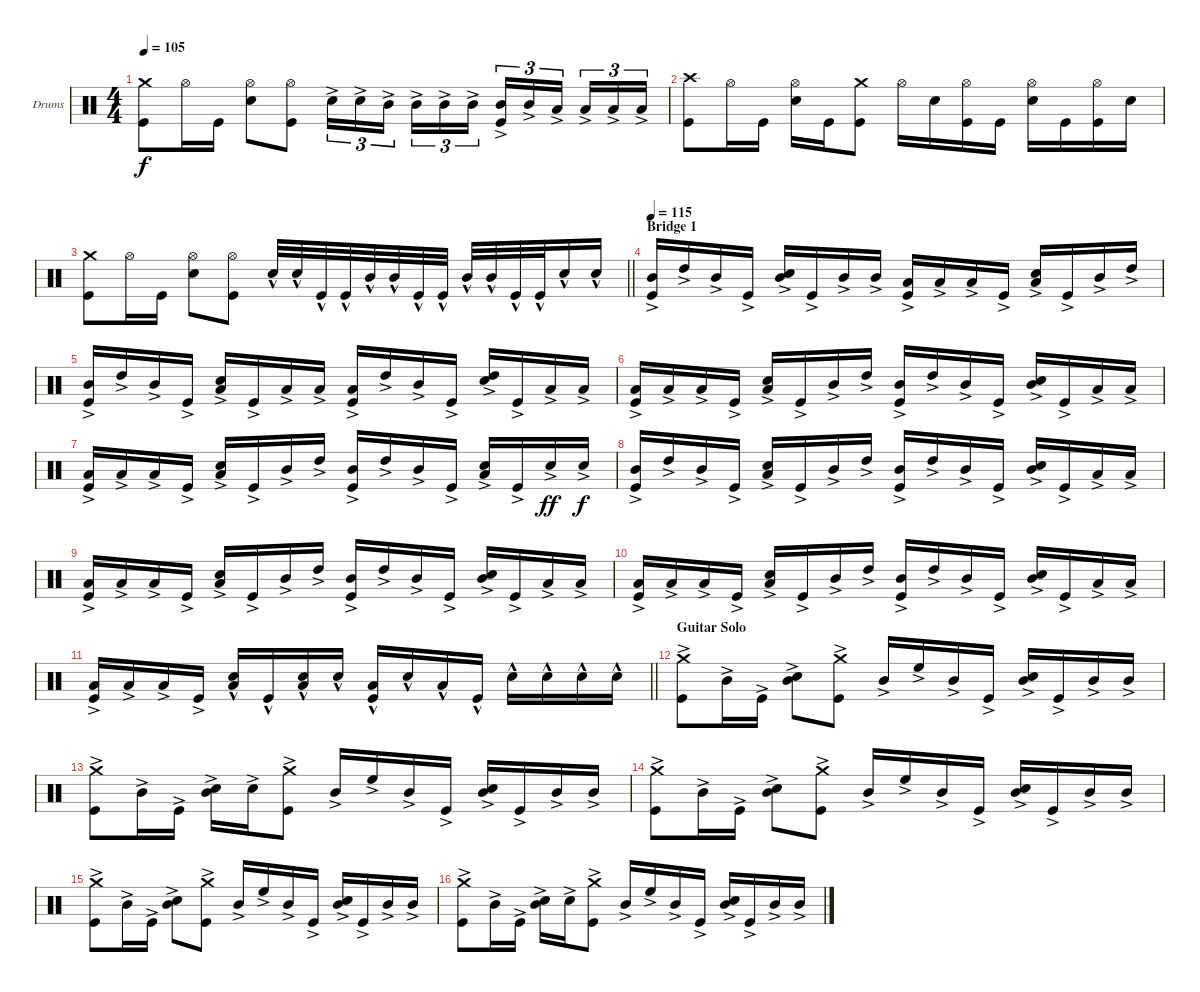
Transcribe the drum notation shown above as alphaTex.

\bracketExtendMode groupsimilarinstruments
\firstSystemTrackNameOrientation horizontal
\otherSystemsTrackNameOrientation horizontal
\track ("Drumkit" "Drums") {instrument percussion}
\staff {score}
\articulation defaults
\ts (4 4)
\tempo 105
\clef neutral
\ks c
("Crash medium (hit)" "Kick (hit)").8{dy f} "Hi-Hat (open)".16 "Kick (hit)".16 ("Hi-Hat (open)" "Snare (hit) 2").8 ("Hi-Hat (open)" "Kick (hit)").8 "Snare (hit) 2"{ac}.16{tu (3 2)} "Snare (hit) 2"{ac}.16{tu (3 2)} "Mid Tom (hit)"{ac}.16{tu (3 2)} "Mid Tom (hit)"{ac}.16{tu (3 2)} "Mid Tom (hit)"{ac}.16{tu (3 2)} "Mid Tom (hit)"{ac}.16{tu (3 2)} ("Mid Tom (hit)"{ac} "Kick (hit)").16{tu (3 2)} "Mid Tom (hit)"{ac}.16{tu (3 2)} "Low Tom (hit)"{ac}.16{tu (3 2)} "Low Tom (hit)"{ac}.16{tu (3 2)} "Low Tom (hit)"{ac}.16{tu (3 2)} "Low Tom (hit)"{ac}.16{tu (3 2)} |
("Crash high (hit)" "Kick (hit)").8 "Hi-Hat (open)".16 "Kick (hit)".16 ("Hi-Hat (open)" "Snare (hit) 2").16 "Kick (hit)".16 ("Crash medium (hit)" "Kick (hit)").8 "Hi-Hat (open)".16 "Snare (hit) 2".16 ("Hi-Hat (open)" "Kick (hit)").16 "Kick (hit)".16 ("Hi-Hat (open)" "Snare (hit) 2").16 "Kick (hit)".16 ("Hi-Hat (open)" "Kick (hit)").16 "Snare (hit) 2".16 |
\tempo (115 1 hide)
\barLineRight lightlight
("Crash medium (hit)" "Kick (hit)").8 "Hi-Hat (open)".16 "Kick (hit)".16 ("Hi-Hat (open)" "Snare (hit) 2").8 ("Hi-Hat (open)" "Kick (hit)").8 "Snare (hit) 2"{hac}.32 "Snare (hit) 2"{hac}.32 "Kick (hit)"{hac}.32 "Kick (hit)"{hac}.32 "Mid Tom (hit)"{hac}.32 "Mid Tom (hit)"{hac}.32 "Kick (hit)"{hac}.32 "Kick (hit)"{hac}.32 "Mid Tom (hit)"{hac}.32 "Mid Tom (hit)"{hac}.32 "Kick (hit)"{hac}.32 "Kick (hit)"{hac}.32 "Snare (hit) 2"{hac}.16 "Snare (hit) 2"{hac}.16 |
\section ("" "Bridge 1")
\tempo 115
("Mid Tom (hit)"{ac} "Kick (hit)"{ac}).16 "High Tom (hit)"{ac}.16 "Mid Tom (hit)"{ac}.16 "Kick (hit)"{ac}.16 ("Mid Tom (hit)"{ac} "Snare (hit) 2"{ac}).16 "Kick (hit)"{ac}.16 "Mid Tom (hit)"{ac}.16 "Mid Tom (hit)"{ac}.16 ("Low Tom (hit)"{ac} "Kick (hit)"{ac}).16 "Low Tom (hit)"{ac}.16 "Low Tom (hit)"{ac}.16 "Kick (hit)"{ac}.16 ("Snare (hit) 2"{ac} "Low Tom (hit)"{ac}).16 "Kick (hit)"{ac}.16 "Mid Tom (hit)"{ac}.16 "High Tom (hit)"{ac}.16 |
("Mid Tom (hit)"{ac} "Kick (hit)"{ac}).16 "High Tom (hit)"{ac}.16 "Mid Tom (hit)"{ac}.16 "Kick (hit)"{ac}.16 ("Snare (hit) 2"{ac} "Low Tom (hit)"{ac}).16 "Kick (hit)"{ac}.16 "Low Tom (hit)"{ac}.16 "Low Tom (hit)"{ac}.16 ("Low Tom (hit)"{ac} "Kick (hit)"{ac}).16 "High Tom (hit)"{ac}.16 "Mid Tom (hit)"{ac}.16 "Kick (hit)"{ac}.16 ("High Tom (hit)"{ac} "Snare (hit) 2"{ac}).16 "Kick (hit)"{ac}.16 "Low Tom (hit)"{ac}.16 "Low Tom (hit)"{ac}.16 |
("Low Tom (hit)"{ac} "Kick (hit)"{ac}).16 "Low Tom (hit)"{ac}.16 "Low Tom (hit)"{ac}.16 "Kick (hit)"{ac}.16 ("Snare (hit) 2"{ac} "Low Tom (hit)"{ac}).16 "Kick (hit)"{ac}.16 "Mid Tom (hit)"{ac}.16 "High Tom (hit)"{ac}.16 ("Mid Tom (hit)"{ac} "Kick (hit)"{ac}).16 "High Tom (hit)"{ac}.16 "Mid Tom (hit)"{ac}.16 "Kick (hit)"{ac}.16 ("Mid Tom (hit)"{ac} "Snare (hit) 2"{ac}).16 "Kick (hit)"{ac}.16 "Low Tom (hit)"{ac}.16 "Low Tom (hit)"{ac}.16 |
("Low Tom (hit)"{ac} "Kick (hit)"{ac}).16 "Low Tom (hit)"{ac}.16 "Low Tom (hit)"{ac}.16 "Kick (hit)"{ac}.16 ("Snare (hit) 2"{ac} "Low Tom (hit)"{ac}).16 "Kick (hit)"{ac}.16 "Mid Tom (hit)"{ac}.16 "High Tom (hit)"{ac}.16 ("Mid Tom (hit)"{ac} "Kick (hit)"{ac}).16 "High Tom (hit)"{ac}.16 "Mid Tom (hit)"{ac}.16 "Kick (hit)"{ac}.16 ("Snare (hit) 2"{ac} "Low Tom (hit)"{ac}).16 "Kick (hit)"{ac}.16 "Snare (hit) 2"{ac}.16{dy ff} "Snare (hit) 2"{ac}.16{dy f} |
("Mid Tom (hit)"{ac} "Kick (hit)"{ac}).16 "High Tom (hit)"{ac}.16 "Mid Tom (hit)"{ac}.16 "Kick (hit)"{ac}.16 ("Snare (hit) 2"{ac} "Low Tom (hit)"{ac}).16 "Kick (hit)"{ac}.16 "Mid Tom (hit)"{ac}.16 "High Tom (hit)"{ac}.16 ("Mid Tom (hit)"{ac} "Kick (hit)"{ac}).16 "High Tom (hit)"{ac}.16 "Mid Tom (hit)"{ac}.16 "Kick (hit)"{ac}.16 ("Mid Tom (hit)"{ac} "Snare (hit) 2"{ac}).16 "Kick (hit)"{ac}.16 "Low Tom (hit)"{ac}.16 "Low Tom (hit)"{ac}.16 |
("Low Tom (hit)"{ac} "Kick (hit)"{ac}).16 "Low Tom (hit)"{ac}.16 "Low Tom (hit)"{ac}.16 "Kick (hit)"{ac}.16 ("Snare (hit) 2"{ac} "Low Tom (hit)"{ac}).16 "Kick (hit)"{ac}.16 "Mid Tom (hit)"{ac}.16 "High Tom (hit)"{ac}.16 ("Mid Tom (hit)"{ac} "Kick (hit)"{ac}).16 "High Tom (hit)"{ac}.16 "Mid Tom (hit)"{ac}.16 "Kick (hit)"{ac}.16 ("Mid Tom (hit)"{ac} "Snare (hit) 2"{ac}).16 "Kick (hit)"{ac}.16 "Low Tom (hit)"{ac}.16 "Low Tom (hit)"{ac}.16 |
("Low Tom (hit)"{ac} "Kick (hit)"{ac}).16 "Low Tom (hit)"{ac}.16 "Low Tom (hit)"{ac}.16 "Kick (hit)"{ac}.16 ("Snare (hit) 2"{ac} "Low Tom (hit)"{ac}).16 "Kick (hit)"{ac}.16 "Mid Tom (hit)"{ac}.16 "High Tom (hit)"{ac}.16 ("Mid Tom (hit)"{ac} "Kick (hit)"{ac}).16 "High Tom (hit)"{ac}.16 "Mid Tom (hit)"{ac}.16 "Kick (hit)"{ac}.16 ("Mid Tom (hit)"{ac} "Snare (hit) 2"{ac}).16 "Kick (hit)"{ac}.16 "Low Tom (hit)"{ac}.16 "Low Tom (hit)"{ac}.16 |
\barLineRight lightlight
("Low Tom (hit)"{ac} "Kick (hit)"{ac}).16 "Low Tom (hit)"{ac}.16 "Low Tom (hit)"{ac}.16 "Kick (hit)"{ac}.16 ("Snare (hit) 2"{hac} "Low Tom (hit)"{hac}).16 "Kick (hit)"{hac}.16 ("Snare (hit) 2"{hac} "Low Tom (hit)"{hac}).16 "Snare (hit) 2"{hac}.16 ("Low Tom (hit)"{hac} "Kick (hit)"{hac}).16 "Snare (hit) 2"{hac}.16 "Low Tom (hit)"{hac}.16 "Kick (hit)"{hac}.16 "Snare (hit) 2"{hac}.16 "Snare (hit) 2"{hac}.16 "Snare (hit) 2"{hac}.16 "Snare (hit) 2"{hac}.16 |
\section ("" "Guitar Solo")
("Crash medium (hit)" "Kick (hit)"{ac}).8 "Mid Tom (hit)"{ac}.16 "Kick (hit)"{ac}.16 ("Mid Tom (hit)"{ac} "Snare (hit) 2"{ac}).8 ("Crash medium (hit)" "Kick (hit)"{ac}).8 "Mid Tom (hit)"{ac}.16 "High Floor Tom (hit)"{ac}.16 "Mid Tom (hit)"{ac}.16 "Kick (hit)"{ac}.16 ("Mid Tom (hit)"{ac} "Snare (hit) 2"{ac}).16 "Kick (hit)"{ac}.16 "Mid Tom (hit)"{ac}.16 "Mid Tom (hit)"{ac}.16 |
("Crash medium (hit)" "Kick (hit)"{ac}).8 "Mid Tom (hit)"{ac}.16 "Kick (hit)"{ac}.16 ("Mid Tom (hit)"{ac} "Snare (hit) 2"{ac}).16 "Snare (hit) 2"{ac}.16 ("Crash medium (hit)" "Kick (hit)"{ac}).8 "Mid Tom (hit)"{ac}.16 "High Floor Tom (hit)"{ac}.16 "Mid Tom (hit)"{ac}.16 "Kick (hit)"{ac}.16 ("Mid Tom (hit)"{ac} "Snare (hit) 2"{ac}).16 "Kick (hit)"{ac}.16 "Mid Tom (hit)"{ac}.16 "Mid Tom (hit)"{ac}.16 |
("Crash medium (hit)" "Kick (hit)"{ac}).8 "Mid Tom (hit)"{ac}.16 "Kick (hit)"{ac}.16 ("Mid Tom (hit)"{ac} "Snare (hit) 2"{ac}).8 ("Crash medium (hit)" "Kick (hit)"{ac}).8 "Mid Tom (hit)"{ac}.16 "High Floor Tom (hit)"{ac}.16 "Mid Tom (hit)"{ac}.16 "Kick (hit)"{ac}.16 ("Mid Tom (hit)"{ac} "Snare (hit) 2"{ac}).16 "Kick (hit)"{ac}.16 "Mid Tom (hit)"{ac}.16 "Mid Tom (hit)"{ac}.16 |
("Crash medium (hit)" "Kick (hit)"{ac}).8 "Mid Tom (hit)"{ac}.16 "Kick (hit)"{ac}.16 ("Mid Tom (hit)"{ac} "Snare (hit) 2"{ac}).8 ("Crash medium (hit)" "Kick (hit)"{ac}).8 "Mid Tom (hit)"{ac}.16 "High Floor Tom (hit)"{ac}.16 "Mid Tom (hit)"{ac}.16 "Kick (hit)"{ac}.16 ("Mid Tom (hit)"{ac} "Snare (hit) 2"{ac}).16 "Kick (hit)"{ac}.16 "Mid Tom (hit)"{ac}.16 "Mid Tom (hit)"{ac}.16 |
("Crash medium (hit)" "Kick (hit)"{ac}).8 "Mid Tom (hit)"{ac}.16 "Kick (hit)"{ac}.16 ("Mid Tom (hit)"{ac} "Snare (hit) 2"{ac}).16 "Snare (hit) 2"{ac}.16 ("Crash medium (hit)" "Kick (hit)"{ac}).8 "Mid Tom (hit)"{ac}.16 "High Floor Tom (hit)"{ac}.16 "Mid Tom (hit)"{ac}.16 "Kick (hit)"{ac}.16 ("Mid Tom (hit)"{ac} "Snare (hit) 2"{ac}).16 "Kick (hit)"{ac}.16 "Mid Tom (hit)"{ac}.16 "Mid Tom (hit)"{ac}.16
